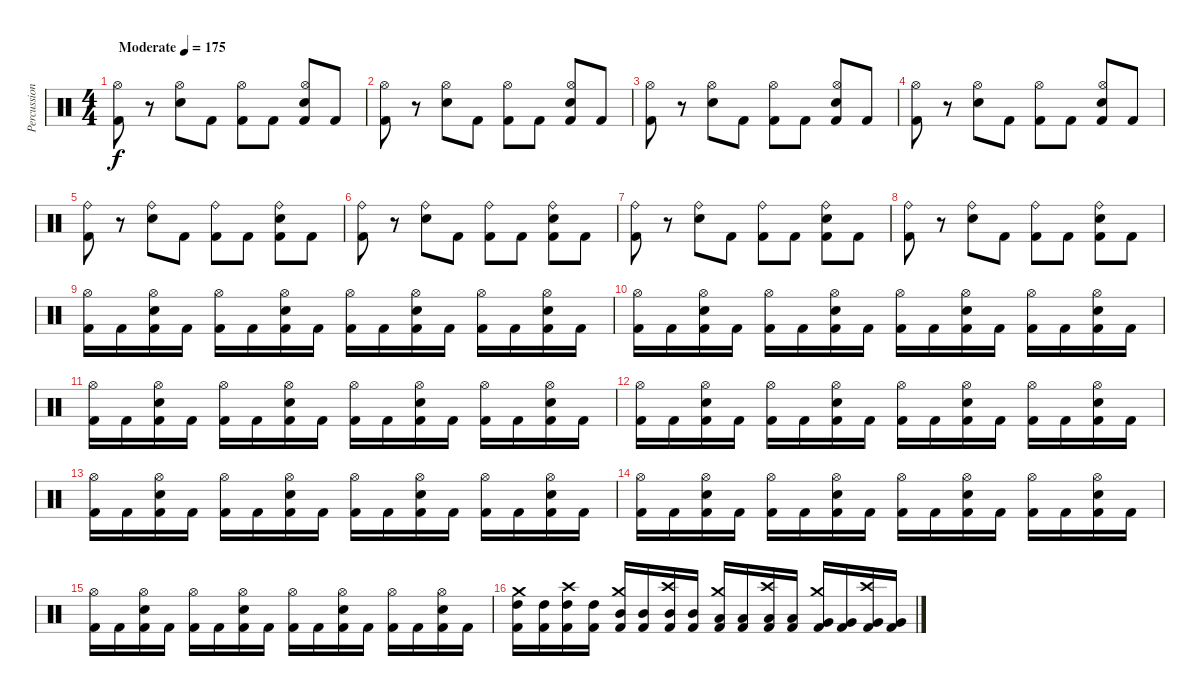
\track ("Percussion" "Percussion") {instrument percussion}
\staff {score}
\articulation defaults
\ts (4 4)
\tempo (175 "Moderate")
\clef neutral
\ks c
("Kick (hit) 2" "Hi-Hat (open)").8{dy f} r.8 ("Snare (hit) 2" "Hi-Hat (open)").8 "Kick (hit) 2".8 ("Kick (hit) 2" "Hi-Hat (open)").8 "Kick (hit) 2".8 ("Kick (hit) 2" "Snare (hit) 2" "Hi-Hat (open)").8 "Kick (hit) 2".8 |
("Kick (hit) 2" "Hi-Hat (open)").8 r.8 ("Snare (hit) 2" "Hi-Hat (open)").8 "Kick (hit) 2".8 ("Kick (hit) 2" "Hi-Hat (open)").8 "Kick (hit) 2".8 ("Kick (hit) 2" "Snare (hit) 2" "Hi-Hat (open)").8 "Kick (hit) 2".8 |
("Kick (hit) 2" "Hi-Hat (open)").8 r.8 ("Snare (hit) 2" "Hi-Hat (open)").8 "Kick (hit) 2".8 ("Kick (hit) 2" "Hi-Hat (open)").8 "Kick (hit) 2".8 ("Kick (hit) 2" "Snare (hit) 2" "Hi-Hat (open)").8 "Kick (hit) 2".8 |
("Kick (hit) 2" "Hi-Hat (open)").8 r.8 ("Snare (hit) 2" "Hi-Hat (open)").8 "Kick (hit) 2".8 ("Kick (hit) 2" "Hi-Hat (open)").8 "Kick (hit) 2".8 ("Kick (hit) 2" "Snare (hit) 2" "Hi-Hat (open)").8 "Kick (hit) 2".8 |
("Kick (hit) 2" "Ride (bell)").8 r.8 ("Snare (hit) 2" "Ride (bell)").8 "Kick (hit) 2".8 ("Kick (hit) 2" "Ride (bell)").8 "Kick (hit) 2".8 ("Kick (hit) 2" "Snare (hit) 2" "Ride (bell)").8 "Kick (hit) 2".8 |
("Kick (hit) 2" "Ride (bell)").8 r.8 ("Snare (hit) 2" "Ride (bell)").8 "Kick (hit) 2".8 ("Kick (hit) 2" "Ride (bell)").8 "Kick (hit) 2".8 ("Kick (hit) 2" "Snare (hit) 2" "Ride (bell)").8 "Kick (hit) 2".8 |
("Kick (hit) 2" "Ride (bell)").8 r.8 ("Snare (hit) 2" "Ride (bell)").8 "Kick (hit) 2".8 ("Kick (hit) 2" "Ride (bell)").8 "Kick (hit) 2".8 ("Kick (hit) 2" "Snare (hit) 2" "Ride (bell)").8 "Kick (hit) 2".8 |
("Kick (hit) 2" "Ride (bell)").8 r.8 ("Snare (hit) 2" "Ride (bell)").8 "Kick (hit) 2".8 ("Kick (hit) 2" "Ride (bell)").8 "Kick (hit) 2".8 ("Kick (hit) 2" "Snare (hit) 2" "Ride (bell)").8 "Kick (hit) 2".8 |
("Hi-Hat (open)" "Kick (hit) 2").16 "Kick (hit) 2".16 ("Hi-Hat (open)" "Snare (hit) 2" "Kick (hit) 2").16 "Kick (hit) 2".16 ("Hi-Hat (open)" "Kick (hit) 2").16 "Kick (hit) 2".16 ("Hi-Hat (open)" "Snare (hit) 2" "Kick (hit) 2").16 "Kick (hit) 2".16 ("Hi-Hat (open)" "Kick (hit) 2").16 "Kick (hit) 2".16 ("Hi-Hat (open)" "Snare (hit) 2" "Kick (hit) 2").16 "Kick (hit) 2".16 ("Hi-Hat (open)" "Kick (hit) 2").16 "Kick (hit) 2".16 ("Hi-Hat (open)" "Snare (hit) 2" "Kick (hit) 2").16 "Kick (hit) 2".16 |
("Hi-Hat (open)" "Kick (hit) 2").16 "Kick (hit) 2".16 ("Hi-Hat (open)" "Snare (hit) 2" "Kick (hit) 2").16 "Kick (hit) 2".16 ("Hi-Hat (open)" "Kick (hit) 2").16 "Kick (hit) 2".16 ("Hi-Hat (open)" "Snare (hit) 2" "Kick (hit) 2").16 "Kick (hit) 2".16 ("Hi-Hat (open)" "Kick (hit) 2").16 "Kick (hit) 2".16 ("Hi-Hat (open)" "Snare (hit) 2" "Kick (hit) 2").16 "Kick (hit) 2".16 ("Hi-Hat (open)" "Kick (hit) 2").16 "Kick (hit) 2".16 ("Hi-Hat (open)" "Snare (hit) 2" "Kick (hit) 2").16 "Kick (hit) 2".16 |
("Hi-Hat (open)" "Kick (hit) 2").16 "Kick (hit) 2".16 ("Hi-Hat (open)" "Snare (hit) 2" "Kick (hit) 2").16 "Kick (hit) 2".16 ("Hi-Hat (open)" "Kick (hit) 2").16 "Kick (hit) 2".16 ("Hi-Hat (open)" "Snare (hit) 2" "Kick (hit) 2").16 "Kick (hit) 2".16 ("Hi-Hat (open)" "Kick (hit) 2").16 "Kick (hit) 2".16 ("Hi-Hat (open)" "Snare (hit) 2" "Kick (hit) 2").16 "Kick (hit) 2".16 ("Hi-Hat (open)" "Kick (hit) 2").16 "Kick (hit) 2".16 ("Hi-Hat (open)" "Snare (hit) 2" "Kick (hit) 2").16 "Kick (hit) 2".16 |
("Hi-Hat (open)" "Kick (hit) 2").16 "Kick (hit) 2".16 ("Hi-Hat (open)" "Snare (hit) 2" "Kick (hit) 2").16 "Kick (hit) 2".16 ("Hi-Hat (open)" "Kick (hit) 2").16 "Kick (hit) 2".16 ("Hi-Hat (open)" "Snare (hit) 2" "Kick (hit) 2").16 "Kick (hit) 2".16 ("Hi-Hat (open)" "Kick (hit) 2").16 "Kick (hit) 2".16 ("Hi-Hat (open)" "Snare (hit) 2" "Kick (hit) 2").16 "Kick (hit) 2".16 ("Hi-Hat (open)" "Kick (hit) 2").16 "Kick (hit) 2".16 ("Hi-Hat (open)" "Snare (hit) 2" "Kick (hit) 2").16 "Kick (hit) 2".16 |
("Hi-Hat (open)" "Kick (hit) 2").16 "Kick (hit) 2".16 ("Hi-Hat (open)" "Snare (hit) 2" "Kick (hit) 2").16 "Kick (hit) 2".16 ("Hi-Hat (open)" "Kick (hit) 2").16 "Kick (hit) 2".16 ("Hi-Hat (open)" "Snare (hit) 2" "Kick (hit) 2").16 "Kick (hit) 2".16 ("Hi-Hat (open)" "Kick (hit) 2").16 "Kick (hit) 2".16 ("Hi-Hat (open)" "Snare (hit) 2" "Kick (hit) 2").16 "Kick (hit) 2".16 ("Hi-Hat (open)" "Kick (hit) 2").16 "Kick (hit) 2".16 ("Hi-Hat (open)" "Snare (hit) 2" "Kick (hit) 2").16 "Kick (hit) 2".16 |
("Hi-Hat (open)" "Kick (hit) 2").16 "Kick (hit) 2".16 ("Hi-Hat (open)" "Snare (hit) 2" "Kick (hit) 2").16 "Kick (hit) 2".16 ("Hi-Hat (open)" "Kick (hit) 2").16 "Kick (hit) 2".16 ("Hi-Hat (open)" "Snare (hit) 2" "Kick (hit) 2").16 "Kick (hit) 2".16 ("Hi-Hat (open)" "Kick (hit) 2").16 "Kick (hit) 2".16 ("Hi-Hat (open)" "Snare (hit) 2" "Kick (hit) 2").16 "Kick (hit) 2".16 ("Hi-Hat (open)" "Kick (hit) 2").16 "Kick (hit) 2".16 ("Hi-Hat (open)" "Snare (hit) 2" "Kick (hit) 2").16 "Kick (hit) 2".16 |
("Hi-Hat (open)" "Kick (hit) 2").16 "Kick (hit) 2".16 ("Hi-Hat (open)" "Snare (hit) 2" "Kick (hit) 2").16 "Kick (hit) 2".16 ("Hi-Hat (open)" "Kick (hit) 2").16 "Kick (hit) 2".16 ("Hi-Hat (open)" "Snare (hit) 2" "Kick (hit) 2").16 "Kick (hit) 2".16 ("Hi-Hat (open)" "Kick (hit) 2").16 "Kick (hit) 2".16 ("Hi-Hat (open)" "Snare (hit) 2" "Kick (hit) 2").16 "Kick (hit) 2".16 ("Hi-Hat (open)" "Kick (hit) 2").16 "Kick (hit) 2".16 ("Hi-Hat (open)" "Snare (hit) 2" "Kick (hit) 2").16 "Kick (hit) 2".16 |
("High Tom (hit)" "Crash medium (hit)" "Kick (hit) 2").16 ("High Tom (hit)" "Kick (hit) 2").16 ("High Tom (hit)" "Crash high (hit)" "Kick (hit) 2").16 ("High Tom (hit)" "Kick (hit) 2").16 ("Mid Tom (hit)" "Crash medium (hit)" "Kick (hit) 2").16 ("Mid Tom (hit)" "Kick (hit) 2").16 ("Mid Tom (hit)" "Crash high (hit)" "Kick (hit) 2").16 ("Mid Tom (hit)" "Kick (hit) 2").16 ("Low Tom (hit)" "Crash medium (hit)" "Kick (hit) 2").16 ("Low Tom (hit)" "Kick (hit) 2").16 ("Low Tom (hit)" "Crash high (hit)" "Kick (hit) 2").16 ("Low Tom (hit)" "Kick (hit) 2").16 ("Very Low Tom (hit)" "Crash medium (hit)" "Kick (hit) 2").16 ("Very Low Tom (hit)" "Kick (hit) 2").16 ("Very Low Tom (hit)" "Crash high (hit)" "Kick (hit) 2").16 ("Very Low Tom (hit)" "Kick (hit) 2").16
